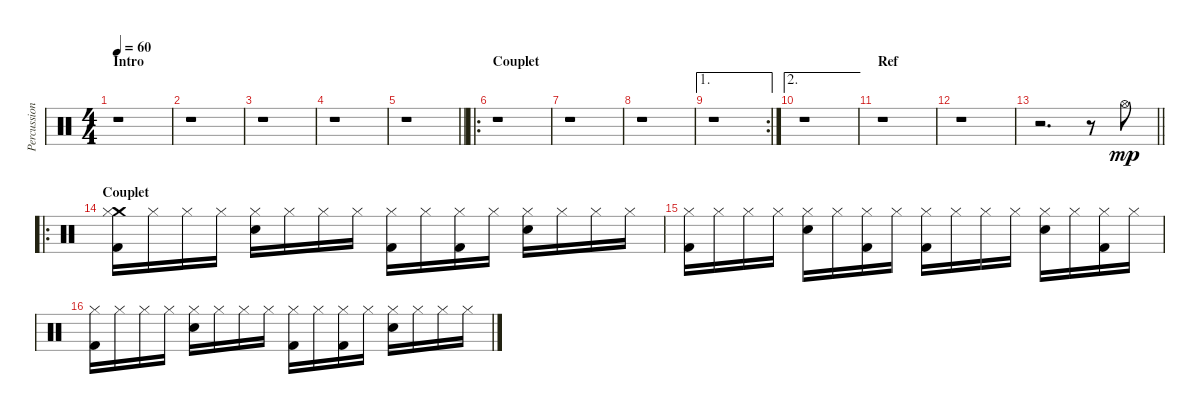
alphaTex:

\track ("Percussions" "Percussion") {instrument percussion}
\staff {score}
\articulation defaults
\ts (4 4)
\section ("" "Intro")
\tempo 60
\clef neutral
\ks c
r.1{dy mp} |
r.1 |
r.1 |
r.1 |
\barLineRight lightlight
r.1 |
\ro
\section ("" "Couplet")
r.1 |
r.1 |
r.1 |
\ae 1
\rc 2
r.1 |
\ae 2
r.1 |
\section ("" "Ref")
r.1 |
r.1 |
\barLineRight lightlight
r.2{d} r.8 "Hi-Hat (open)".8 |
\ro
\section ("" "Couplet")
("Crash medium (hit)" "Hi-Hat (closed)" "Kick (hit) 2").16 "Hi-Hat (closed)".16 "Hi-Hat (closed)".16 "Hi-Hat (closed)".16 ("Hi-Hat (closed)" "Snare (hit) 2").16 "Hi-Hat (closed)".16 "Hi-Hat (closed)".16 "Hi-Hat (closed)".16 ("Hi-Hat (closed)" "Kick (hit) 2").16 "Hi-Hat (closed)".16 ("Hi-Hat (closed)" "Kick (hit) 2").16 "Hi-Hat (closed)".16 ("Hi-Hat (closed)" "Snare (hit) 2").16 "Hi-Hat (closed)".16 "Hi-Hat (closed)".16 "Hi-Hat (closed)".16 |
("Hi-Hat (closed)" "Kick (hit) 2").16 "Hi-Hat (closed)".16 "Hi-Hat (closed)".16 "Hi-Hat (closed)".16 ("Hi-Hat (closed)" "Snare (hit) 2").16 "Hi-Hat (closed)".16 ("Hi-Hat (closed)" "Kick (hit) 2").16 "Hi-Hat (closed)".16 ("Hi-Hat (closed)" "Kick (hit) 2").16 "Hi-Hat (closed)".16 "Hi-Hat (closed)".16 "Hi-Hat (closed)".16 ("Hi-Hat (closed)" "Snare (hit) 2").16 "Hi-Hat (closed)".16 ("Hi-Hat (closed)" "Kick (hit) 2").16 "Hi-Hat (closed)".16 |
("Hi-Hat (closed)" "Kick (hit) 2").16 "Hi-Hat (closed)".16 "Hi-Hat (closed)".16 "Hi-Hat (closed)".16 ("Hi-Hat (closed)" "Snare (hit) 2").16 "Hi-Hat (closed)".16 "Hi-Hat (closed)".16 "Hi-Hat (closed)".16 ("Hi-Hat (closed)" "Kick (hit) 2").16 "Hi-Hat (closed)".16 ("Hi-Hat (closed)" "Kick (hit) 2").16 "Hi-Hat (closed)".16 ("Hi-Hat (closed)" "Snare (hit) 2").16 "Hi-Hat (closed)".16 "Hi-Hat (closed)".16 "Hi-Hat (closed)".16
